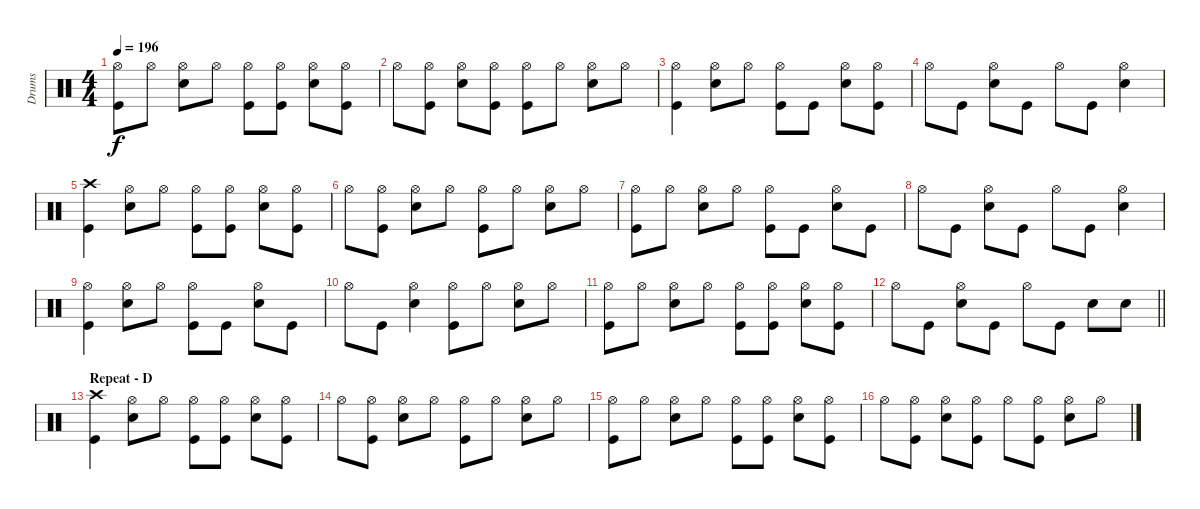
\track ("Drums" "Drums") {instrument percussion}
\staff {score}
\articulation defaults
\ts (4 4)
\tempo 196
\clef neutral
\ks c
("Hi-Hat (open)" "Kick (hit)").8{dy f} "Hi-Hat (open)".8 ("Hi-Hat (open)" "Electric Snare (hit)").8 "Hi-Hat (open)".8 ("Hi-Hat (open)" "Kick (hit)").8 ("Hi-Hat (open)" "Kick (hit)").8 ("Hi-Hat (open)" "Electric Snare (hit)").8 ("Hi-Hat (open)" "Kick (hit)").8 |
"Hi-Hat (open)".8 ("Hi-Hat (open)" "Kick (hit)").8 ("Hi-Hat (open)" "Electric Snare (hit)").8 ("Hi-Hat (open)" "Kick (hit)").8 ("Hi-Hat (open)" "Kick (hit)").8 "Hi-Hat (open)".8 ("Hi-Hat (open)" "Electric Snare (hit)").8 "Hi-Hat (open)".8 |
("Hi-Hat (open)" "Kick (hit)").4 ("Hi-Hat (open)" "Electric Snare (hit)").8 "Hi-Hat (open)".8 ("Hi-Hat (open)" "Kick (hit)").8 "Kick (hit)".8 ("Hi-Hat (open)" "Electric Snare (hit)").8 ("Hi-Hat (open)" "Kick (hit)").8 |
"Hi-Hat (open)".8 "Kick (hit)".8 ("Hi-Hat (open)" "Electric Snare (hit)").8 "Kick (hit)".8 "Hi-Hat (open)".8 "Kick (hit)".8 ("Hi-Hat (open)" "Electric Snare (hit)").4 |
("Crash high (hit)" "Kick (hit)").4 ("Hi-Hat (open)" "Electric Snare (hit)").8 "Hi-Hat (open)".8 ("Hi-Hat (open)" "Kick (hit)").8 ("Hi-Hat (open)" "Kick (hit)").8 ("Hi-Hat (open)" "Electric Snare (hit)").8 ("Hi-Hat (open)" "Kick (hit)").8 |
"Hi-Hat (open)".8 ("Hi-Hat (open)" "Kick (hit)").8 ("Hi-Hat (open)" "Electric Snare (hit)").8 "Hi-Hat (open)".8 ("Hi-Hat (open)" "Kick (hit)").8 "Hi-Hat (open)".8 ("Hi-Hat (open)" "Electric Snare (hit)").8 "Hi-Hat (open)".8 |
("Hi-Hat (open)" "Kick (hit)").8 "Hi-Hat (open)".8 ("Hi-Hat (open)" "Electric Snare (hit)").8 "Hi-Hat (open)".8 ("Hi-Hat (open)" "Kick (hit)").8 "Kick (hit)".8 ("Hi-Hat (open)" "Electric Snare (hit)").8 "Kick (hit)".8 |
"Hi-Hat (open)".8 "Kick (hit)".8 ("Hi-Hat (open)" "Electric Snare (hit)").8 "Kick (hit)".8 "Hi-Hat (open)".8 "Kick (hit)".8 ("Hi-Hat (open)" "Electric Snare (hit)").4 |
("Hi-Hat (open)" "Kick (hit)").4 ("Hi-Hat (open)" "Electric Snare (hit)").8 "Hi-Hat (open)".8 ("Hi-Hat (open)" "Kick (hit)").8 "Kick (hit)".8 ("Hi-Hat (open)" "Electric Snare (hit)").8 "Kick (hit)".8 |
"Hi-Hat (open)".8 "Kick (hit)".8 ("Hi-Hat (open)" "Electric Snare (hit)").4 ("Hi-Hat (open)" "Kick (hit)").8 "Hi-Hat (open)".8 ("Hi-Hat (open)" "Electric Snare (hit)").8 "Hi-Hat (open)".8 |
("Hi-Hat (open)" "Kick (hit)").8 "Hi-Hat (open)".8 ("Hi-Hat (open)" "Electric Snare (hit)").8 "Hi-Hat (open)".8 ("Hi-Hat (open)" "Kick (hit)").8 ("Hi-Hat (open)" "Kick (hit)").8 ("Hi-Hat (open)" "Electric Snare (hit)").8 ("Hi-Hat (open)" "Kick (hit)").8 |
\barLineRight lightlight "Hi-Hat (open)".8 "Kick (hit)".8
("Hi-Hat (open)" "Electric Snare (hit)").8 "Kick (hit)".8 "Hi-Hat (open)".8 "Kick (hit)".8 "Electric Snare (hit)".8 "Electric Snare (hit)".8 |
\section ("" "Repeat - D")
("Crash high (hit)" "Kick (hit)").4 ("Hi-Hat (open)" "Electric Snare (hit)").8 "Hi-Hat (open)".8 ("Hi-Hat (open)" "Kick (hit)").8 ("Hi-Hat (open)" "Kick (hit)").8 ("Hi-Hat (open)" "Electric Snare (hit)").8 ("Hi-Hat (open)" "Kick (hit)").8 |
"Hi-Hat (open)".8 ("Hi-Hat (open)" "Kick (hit)").8 ("Hi-Hat (open)" "Electric Snare (hit)").8 "Hi-Hat (open)".8 ("Hi-Hat (open)" "Kick (hit)").8 "Hi-Hat (open)".8 ("Hi-Hat (open)" "Electric Snare (hit)").8 "Hi-Hat (open)".8 |
("Hi-Hat (open)" "Kick (hit)").8 "Hi-Hat (open)".8 ("Hi-Hat (open)" "Electric Snare (hit)").8 "Hi-Hat (open)".8 ("Hi-Hat (open)" "Kick (hit)").8 ("Hi-Hat (open)" "Kick (hit)").8 ("Hi-Hat (open)" "Electric Snare (hit)").8 ("Hi-Hat (open)" "Kick (hit)").8 |
"Hi-Hat (open)".8 ("Hi-Hat (open)" "Kick (hit)").8 ("Hi-Hat (open)" "Electric Snare (hit)").8 ("Hi-Hat (open)" "Kick (hit)").8 "Hi-Hat (open)".8 ("Hi-Hat (open)" "Kick (hit)").8 ("Hi-Hat (open)" "Electric Snare (hit)").8 "Hi-Hat (open)".8
